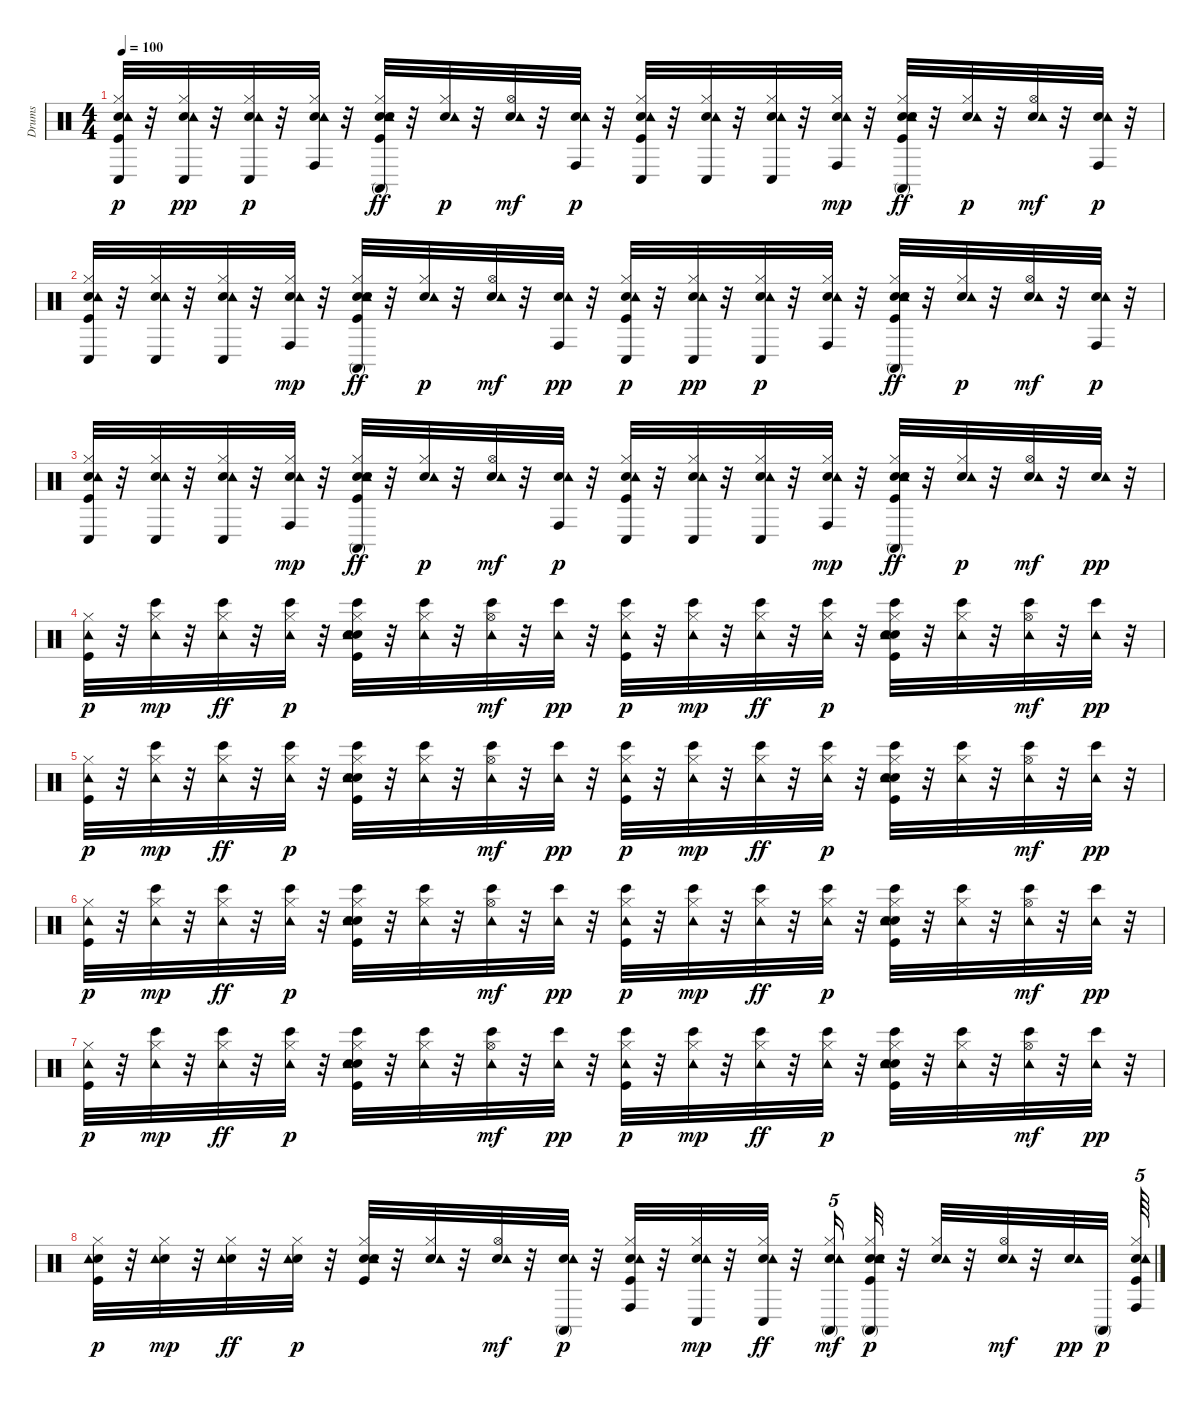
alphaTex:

\track ("Drums" "Drums") {instrument percussion}
\staff {score}
\articulation defaults
\ts (4 4)
\tempo 100
\clef neutral
\ks c
("Hand Clap (hit)" "Tambourine (hit)" "Kick (hit)" "Hi-Hat (closed)" "Conga low (hit)").32{dy p} r.32 ("Hand Clap (hit)" "Tambourine (hit)" "Hi-Hat (closed)" "Conga low (hit)").32{dy pp} r.32 ("Hand Clap (hit)" "Tambourine (hit)" "Hi-Hat (closed)" "Conga low (hit)").32{dy p} r.32 ("Hand Clap (hit)" "Tambourine (hit)" "Hi-Hat (closed)" "Conga high (hit)").32 r.32 ("Hand Clap (hit)" "Snare (hit) 2" "Tambourine (hit)" "Kick (hit)" "Hi-Hat (closed)" "Conga high (mute)").32{dy ff} r.32 ("Hand Clap (hit)" "Tambourine (hit)" "Hi-Hat (closed)").32{dy p} r.32 ("Hand Clap (hit)" "Tambourine (hit)" "Hi-Hat (open)").32{dy mf} r.32 ("Hand Clap (hit)" "Tambourine (hit)" "Conga high (hit)").32{dy p} r.32 ("Hand Clap (hit)" "Tambourine (hit)" "Kick (hit)" "Hi-Hat (closed)" "Conga low (hit)").32 r.32 ("Hand Clap (hit)" "Tambourine (hit)" "Hi-Hat (closed)" "Conga low (hit)").32 r.32 ("Hand Clap (hit)" "Tambourine (hit)" "Hi-Hat (closed)" "Conga low (hit)").32 r.32 ("Hand Clap (hit)" "Tambourine (hit)" "Hi-Hat (closed)" "Conga high (hit)").32{dy mp} r.32 ("Hand Clap (hit)" "Snare (hit) 2" "Tambourine (hit)" "Kick (hit)" "Hi-Hat (closed)" "Conga high (mute)").32{dy ff} r.32 ("Hand Clap (hit)" "Tambourine (hit)" "Hi-Hat (closed)").32{dy p} r.32 ("Hand Clap (hit)" "Tambourine (hit)" "Hi-Hat (open)").32{dy mf} r.32 ("Hand Clap (hit)" "Tambourine (hit)" "Conga high (hit)").32{dy p} r.32 |
("Hand Clap (hit)" "Tambourine (hit)" "Kick (hit)" "Hi-Hat (closed)" "Conga low (hit)").32 r.32 ("Hand Clap (hit)" "Tambourine (hit)" "Hi-Hat (closed)" "Conga low (hit)").32 r.32 ("Hand Clap (hit)" "Tambourine (hit)" "Hi-Hat (closed)" "Conga low (hit)").32 r.32 ("Hand Clap (hit)" "Tambourine (hit)" "Hi-Hat (closed)" "Conga high (hit)").32{dy mp} r.32 ("Hand Clap (hit)" "Snare (hit) 2" "Tambourine (hit)" "Kick (hit)" "Hi-Hat (closed)" "Conga high (mute)").32{dy ff} r.32 ("Hand Clap (hit)" "Tambourine (hit)" "Hi-Hat (closed)").32{dy p} r.32 ("Hand Clap (hit)" "Tambourine (hit)" "Hi-Hat (open)").32{dy mf} r.32 ("Hand Clap (hit)" "Tambourine (hit)" "Conga high (hit)").32{dy pp} r.32 ("Hand Clap (hit)" "Tambourine (hit)" "Kick (hit)" "Hi-Hat (closed)" "Conga low (hit)").32{dy p} r.32 ("Hand Clap (hit)" "Tambourine (hit)" "Hi-Hat (closed)" "Conga low (hit)").32{dy pp} r.32 ("Hand Clap (hit)" "Tambourine (hit)" "Hi-Hat (closed)" "Conga low (hit)").32{dy p} r.32 ("Hand Clap (hit)" "Tambourine (hit)" "Hi-Hat (closed)" "Conga high (hit)").32 r.32 ("Hand Clap (hit)" "Snare (hit) 2" "Tambourine (hit)" "Kick (hit)" "Hi-Hat (closed)" "Conga high (mute)").32{dy ff} r.32 ("Hand Clap (hit)" "Tambourine (hit)" "Hi-Hat (closed)").32{dy p} r.32 ("Hand Clap (hit)" "Tambourine (hit)" "Hi-Hat (open)").32{dy mf} r.32 ("Hand Clap (hit)" "Tambourine (hit)" "Conga high (hit)").32{dy p} r.32 |
("Hand Clap (hit)" "Tambourine (hit)" "Kick (hit)" "Hi-Hat (closed)" "Conga low (hit)").32 r.32 ("Hand Clap (hit)" "Tambourine (hit)" "Hi-Hat (closed)" "Conga low (hit)").32 r.32 ("Hand Clap (hit)" "Tambourine (hit)" "Hi-Hat (closed)" "Conga low (hit)").32 r.32 ("Hand Clap (hit)" "Tambourine (hit)" "Hi-Hat (closed)" "Conga high (hit)").32{dy mp} r.32 ("Hand Clap (hit)" "Snare (hit) 2" "Tambourine (hit)" "Kick (hit)" "Hi-Hat (closed)" "Conga high (mute)").32{dy ff} r.32 ("Hand Clap (hit)" "Tambourine (hit)" "Hi-Hat (closed)").32{dy p} r.32 ("Hand Clap (hit)" "Tambourine (hit)" "Hi-Hat (open)").32{dy mf} r.32 ("Hand Clap (hit)" "Tambourine (hit)" "Conga high (hit)").32{dy p} r.32 ("Hand Clap (hit)" "Tambourine (hit)" "Kick (hit)" "Hi-Hat (closed)" "Conga low (hit)").32 r.32 ("Hand Clap (hit)" "Tambourine (hit)" "Hi-Hat (closed)" "Conga low (hit)").32 r.32 ("Hand Clap (hit)" "Tambourine (hit)" "Hi-Hat (closed)" "Conga low (hit)").32 r.32 ("Hand Clap (hit)" "Tambourine (hit)" "Hi-Hat (closed)" "Conga high (hit)").32{dy mp} r.32 ("Hand Clap (hit)" "Snare (hit) 2" "Tambourine (hit)" "Kick (hit)" "Hi-Hat (closed)" "Conga high (mute)").32{dy ff} r.32 ("Hand Clap (hit)" "Tambourine (hit)" "Hi-Hat (closed)").32{dy p} r.32 ("Hand Clap (hit)" "Tambourine (hit)" "Hi-Hat (open)").32{dy mf} r.32 ("Hand Clap (hit)" "Tambourine (hit)").32{dy pp} r.32 |
("Tambourine (hit)" "Kick (hit)" "Hi-Hat (closed)").32{dy p} r.32 ("Bongo High (hit)" "Tambourine (hit)" "Hi-Hat (closed)").32{dy mp} r.32 ("Bongo High (hit)" "Tambourine (hit)" "Hi-Hat (closed)").32{dy ff} r.32 ("Bongo High (hit)" "Tambourine (hit)" "Hi-Hat (closed)").32{dy p} r.32 ("Hand Clap (hit)" "Snare (hit) 2" "Bongo High (hit)" "Tambourine (hit)" "Kick (hit)" "Hi-Hat (closed)").32 r.32 ("Bongo High (hit)" "Tambourine (hit)" "Hi-Hat (closed)").32 r.32 ("Bongo High (hit)" "Tambourine (hit)" "Hi-Hat (open)").32{dy mf} r.32 ("Bongo High (hit)" "Tambourine (hit)").32{dy pp} r.32 ("Bongo High (hit)" "Tambourine (hit)" "Kick (hit)" "Hi-Hat (closed)").32{dy p} r.32 ("Bongo High (hit)" "Tambourine (hit)" "Hi-Hat (closed)").32{dy mp} r.32 ("Bongo High (hit)" "Tambourine (hit)" "Hi-Hat (closed)").32{dy ff} r.32 ("Bongo High (hit)" "Tambourine (hit)" "Hi-Hat (closed)").32{dy p} r.32 ("Hand Clap (hit)" "Snare (hit) 2" "Bongo High (hit)" "Tambourine (hit)" "Kick (hit)" "Hi-Hat (closed)").32 r.32 ("Bongo High (hit)" "Tambourine (hit)" "Hi-Hat (closed)").32 r.32 ("Bongo High (hit)" "Tambourine (hit)" "Hi-Hat (open)").32{dy mf} r.32 ("Bongo High (hit)" "Tambourine (hit)").32{dy pp} r.32 |
("Tambourine (hit)" "Kick (hit)" "Hi-Hat (closed)").32{dy p} r.32 ("Bongo High (hit)" "Tambourine (hit)" "Hi-Hat (closed)").32{dy mp} r.32 ("Bongo High (hit)" "Tambourine (hit)" "Hi-Hat (closed)").32{dy ff} r.32 ("Bongo High (hit)" "Tambourine (hit)" "Hi-Hat (closed)").32{dy p} r.32 ("Hand Clap (hit)" "Snare (hit) 2" "Bongo High (hit)" "Tambourine (hit)" "Kick (hit)" "Hi-Hat (closed)").32 r.32 ("Bongo High (hit)" "Tambourine (hit)" "Hi-Hat (closed)").32 r.32 ("Bongo High (hit)" "Tambourine (hit)" "Hi-Hat (open)").32{dy mf} r.32 ("Bongo High (hit)" "Tambourine (hit)").32{dy pp} r.32 ("Bongo High (hit)" "Tambourine (hit)" "Kick (hit)" "Hi-Hat (closed)").32{dy p} r.32 ("Bongo High (hit)" "Tambourine (hit)" "Hi-Hat (closed)").32{dy mp} r.32 ("Bongo High (hit)" "Tambourine (hit)" "Hi-Hat (closed)").32{dy ff} r.32 ("Bongo High (hit)" "Tambourine (hit)" "Hi-Hat (closed)").32{dy p} r.32 ("Hand Clap (hit)" "Snare (hit) 2" "Bongo High (hit)" "Tambourine (hit)" "Kick (hit)" "Hi-Hat (closed)").32 r.32 ("Bongo High (hit)" "Tambourine (hit)" "Hi-Hat (closed)").32 r.32 ("Bongo High (hit)" "Tambourine (hit)" "Hi-Hat (open)").32{dy mf} r.32 ("Bongo High (hit)" "Tambourine (hit)").32{dy pp} r.32 |
("Tambourine (hit)" "Kick (hit)" "Hi-Hat (closed)").32{dy p} r.32 ("Bongo High (hit)" "Tambourine (hit)" "Hi-Hat (closed)").32{dy mp} r.32 ("Bongo High (hit)" "Tambourine (hit)" "Hi-Hat (closed)").32{dy ff} r.32 ("Bongo High (hit)" "Tambourine (hit)" "Hi-Hat (closed)").32{dy p} r.32 ("Hand Clap (hit)" "Snare (hit) 2" "Bongo High (hit)" "Tambourine (hit)" "Kick (hit)" "Hi-Hat (closed)").32 r.32 ("Bongo High (hit)" "Tambourine (hit)" "Hi-Hat (closed)").32 r.32 ("Bongo High (hit)" "Tambourine (hit)" "Hi-Hat (open)").32{dy mf} r.32 ("Bongo High (hit)" "Tambourine (hit)").32{dy pp} r.32 ("Bongo High (hit)" "Tambourine (hit)" "Kick (hit)" "Hi-Hat (closed)").32{dy p} r.32 ("Bongo High (hit)" "Tambourine (hit)" "Hi-Hat (closed)").32{dy mp} r.32 ("Bongo High (hit)" "Tambourine (hit)" "Hi-Hat (closed)").32{dy ff} r.32 ("Bongo High (hit)" "Tambourine (hit)" "Hi-Hat (closed)").32{dy p} r.32 ("Hand Clap (hit)" "Snare (hit) 2" "Bongo High (hit)" "Tambourine (hit)" "Kick (hit)" "Hi-Hat (closed)").32 r.32 ("Bongo High (hit)" "Tambourine (hit)" "Hi-Hat (closed)").32 r.32 ("Bongo High (hit)" "Tambourine (hit)" "Hi-Hat (open)").32{dy mf} r.32 ("Bongo High (hit)" "Tambourine (hit)").32{dy pp} r.32 |
("Tambourine (hit)" "Kick (hit)" "Hi-Hat (closed)").32{dy p} r.32 ("Bongo High (hit)" "Tambourine (hit)" "Hi-Hat (closed)").32{dy mp} r.32 ("Bongo High (hit)" "Tambourine (hit)" "Hi-Hat (closed)").32{dy ff} r.32 ("Bongo High (hit)" "Tambourine (hit)" "Hi-Hat (closed)").32{dy p} r.32 ("Hand Clap (hit)" "Snare (hit) 2" "Bongo High (hit)" "Tambourine (hit)" "Kick (hit)" "Hi-Hat (closed)").32 r.32 ("Bongo High (hit)" "Tambourine (hit)" "Hi-Hat (closed)").32 r.32 ("Bongo High (hit)" "Tambourine (hit)" "Hi-Hat (open)").32{dy mf} r.32 ("Bongo High (hit)" "Tambourine (hit)").32{dy pp} r.32 ("Bongo High (hit)" "Tambourine (hit)" "Kick (hit)" "Hi-Hat (closed)").32{dy p} r.32 ("Bongo High (hit)" "Tambourine (hit)" "Hi-Hat (closed)").32{dy mp} r.32 ("Bongo High (hit)" "Tambourine (hit)" "Hi-Hat (closed)").32{dy ff} r.32 ("Bongo High (hit)" "Tambourine (hit)" "Hi-Hat (closed)").32{dy p} r.32 ("Hand Clap (hit)" "Snare (hit) 2" "Bongo High (hit)" "Tambourine (hit)" "Kick (hit)" "Hi-Hat (closed)").32 r.32 ("Bongo High (hit)" "Tambourine (hit)" "Hi-Hat (closed)").32 r.32 ("Bongo High (hit)" "Tambourine (hit)" "Hi-Hat (open)").32{dy mf} r.32 ("Bongo High (hit)" "Tambourine (hit)").32{dy pp} r.32 |
("Hand Clap (hit)" "Tambourine (hit)" "Kick (hit)" "Hi-Hat (closed)").32{dy p} r.32 ("Hand Clap (hit)" "Tambourine (hit)" "Hi-Hat (closed)").32{dy mp} r.32 ("Hand Clap (hit)" "Tambourine (hit)" "Hi-Hat (closed)").32{dy ff} r.32 ("Hand Clap (hit)" "Tambourine (hit)" "Hi-Hat (closed)").32{dy p} r.32 ("Hand Clap (hit)" "Snare (hit) 2" "Tambourine (hit)" "Kick (hit)" "Hi-Hat (closed)").32 r.32 ("Hand Clap (hit)" "Tambourine (hit)" "Hi-Hat (closed)").32 r.32 ("Hand Clap (hit)" "Tambourine (hit)" "Hi-Hat (open)").32{dy mf} r.32 ("Hand Clap (hit)" "Tambourine (hit)" "Conga high (mute)").32{dy p} r.32 ("Conga high (hit)" "Hand Clap (hit)" "Tambourine (hit)" "Kick (hit)" "Hi-Hat (closed)").32 r.32 ("Hand Clap (hit)" "Tambourine (hit)" "Hi-Hat (closed)" "Conga low (hit)").32{dy mp} r.32 ("Conga low (hit)" "Hand Clap (hit)" "Tambourine (hit)" "Hi-Hat (closed)").32{dy ff} r.32 ("Hand Clap (hit)" "Tambourine (hit)" "Hi-Hat (closed)" "Conga high (mute)").16{tu (5 4) dy mf} ("Conga high (mute)" "Hand Clap (hit)" "Snare (hit) 2" "Tambourine (hit)" "Kick (hit)" "Hi-Hat (closed)").32{dy p} r.32 ("Hand Clap (hit)" "Tambourine (hit)" "Hi-Hat (closed)").32 r.32 ("Hand Clap (hit)" "Tambourine (hit)" "Hi-Hat (open)").32{dy mf} r.32 ("Hand Clap (hit)" "Tambourine (hit)").32{dy pp} "Conga high (mute)".32{dy p} ("Conga high (hit)" "Hand Clap (hit)" "Tambourine (hit)" "Kick (hit)" "Hi-Hat (closed)").64{tu (5 4)}
